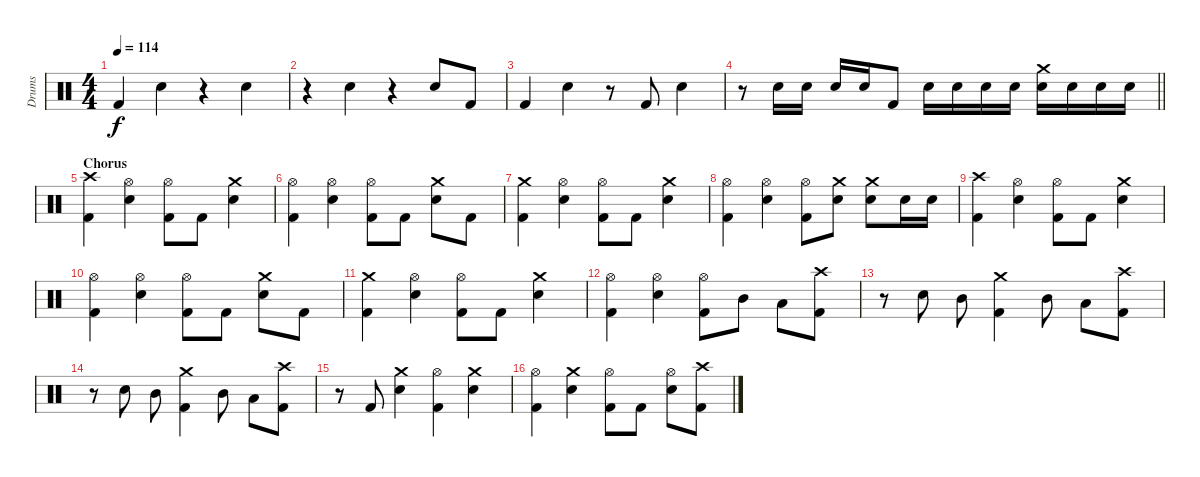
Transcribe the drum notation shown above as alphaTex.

\track ("Drums" "Drums") {instrument percussion}
\staff {score}
\articulation defaults
\ts (4 4)
\tempo 114
\clef neutral
\ks c "Kick (hit) 2".4{dy f} "Snare (hit) 2".4
r.4 "Snare (hit) 2".4 |
r.4 "Snare (hit) 2".4 r.4 "Snare (hit) 2".8 "Kick (hit) 2".8 |
"Kick (hit) 2".4 "Snare (hit) 2".4 r.8 "Kick (hit) 2".8 "Snare (hit) 2".4 |
\barLineRight lightlight
r.8 "Snare (hit) 2".16 "Snare (hit) 2".16 "Snare (hit) 2".16 "Snare (hit) 2".16 "Kick (hit) 2".8 "Snare (hit) 2".16 "Snare (hit) 2".16 "Snare (hit) 2".16 "Snare (hit) 2".16 ("Crash medium (hit)" "Snare (hit) 2").16 "Snare (hit) 2".16 "Snare (hit) 2".16 "Snare (hit) 2".16 |
\section ("" "Chorus")
("Crash high (hit)" "Kick (hit) 2").4 ("Hi-Hat (open)" "Snare (hit) 2").4 ("Hi-Hat (open)" "Kick (hit) 2").8 "Kick (hit) 2".8 ("Crash medium (hit)" "Snare (hit) 2").4 |
("Hi-Hat (open)" "Kick (hit) 2").4 ("Hi-Hat (open)" "Snare (hit) 2").4 ("Hi-Hat (open)" "Kick (hit) 2").8 "Kick (hit) 2".8 ("Crash medium (hit)" "Snare (hit) 2").8 "Kick (hit) 2".8 |
("Crash medium (hit)" "Kick (hit) 2").4 ("Hi-Hat (open)" "Snare (hit) 2").4 ("Hi-Hat (open)" "Kick (hit) 2").8 "Kick (hit) 2".8 ("Crash medium (hit)" "Snare (hit) 2").4 |
("Hi-Hat (open)" "Kick (hit) 2").4 ("Hi-Hat (open)" "Snare (hit) 2").4 ("Hi-Hat (open)" "Kick (hit) 2").8 ("Crash medium (hit)" "Snare (hit) 2").8 ("Crash medium (hit)" "Snare (hit) 2").8 "Snare (hit) 2".16 "Snare (hit) 2".16 |
("Crash high (hit)" "Kick (hit) 2").4 ("Hi-Hat (open)" "Snare (hit) 2").4 ("Hi-Hat (open)" "Kick (hit) 2").8 "Kick (hit) 2".8 ("Crash medium (hit)" "Snare (hit) 2").4 |
("Hi-Hat (open)" "Kick (hit) 2").4 ("Hi-Hat (open)" "Snare (hit) 2").4 ("Hi-Hat (open)" "Kick (hit) 2").8 "Kick (hit) 2".8 ("Crash medium (hit)" "Snare (hit) 2").8 "Kick (hit) 2".8 |
("Crash medium (hit)" "Kick (hit) 2").4 ("Hi-Hat (open)" "Snare (hit) 2").4 ("Hi-Hat (open)" "Kick (hit) 2").8 "Kick (hit) 2".8 ("Crash medium (hit)" "Snare (hit) 2").4 |
("Hi-Hat (open)" "Kick (hit) 2").4 ("Hi-Hat (open)" "Snare (hit) 2").4 ("Hi-Hat (open)" "Kick (hit) 2").8 "Mid Tom (hit)".8 "Low Tom (hit)".8 ("Crash high (hit)" "Kick (hit) 2").8 |
r.8 "Snare (hit) 2".8 "Mid Tom (hit)".8 ("Crash medium (hit)" "Kick (hit) 2").4 "Mid Tom (hit)".8 "Low Tom (hit)".8 ("Crash high (hit)" "Kick (hit) 2").8 |
r.8 "Snare (hit) 2".8 "Mid Tom (hit)".8 ("Crash medium (hit)" "Kick (hit) 2").4 "Mid Tom (hit)".8 "Low Tom (hit)".8 ("Crash high (hit)" "Kick (hit) 2").8 |
r.8 "Kick (hit) 2".8 ("Crash medium (hit)" "Snare (hit) 2").4 ("Hi-Hat (open)" "Kick (hit) 2").4 ("Crash medium (hit)" "Snare (hit) 2").4 |
("Hi-Hat (open)" "Kick (hit) 2").4 ("Crash medium (hit)" "Snare (hit) 2").4 ("Hi-Hat (open)" "Kick (hit) 2").8 "Kick (hit) 2".8 ("Hi-Hat (open)" "Snare (hit) 2").8 ("Crash high (hit)" "Kick (hit) 2").8
